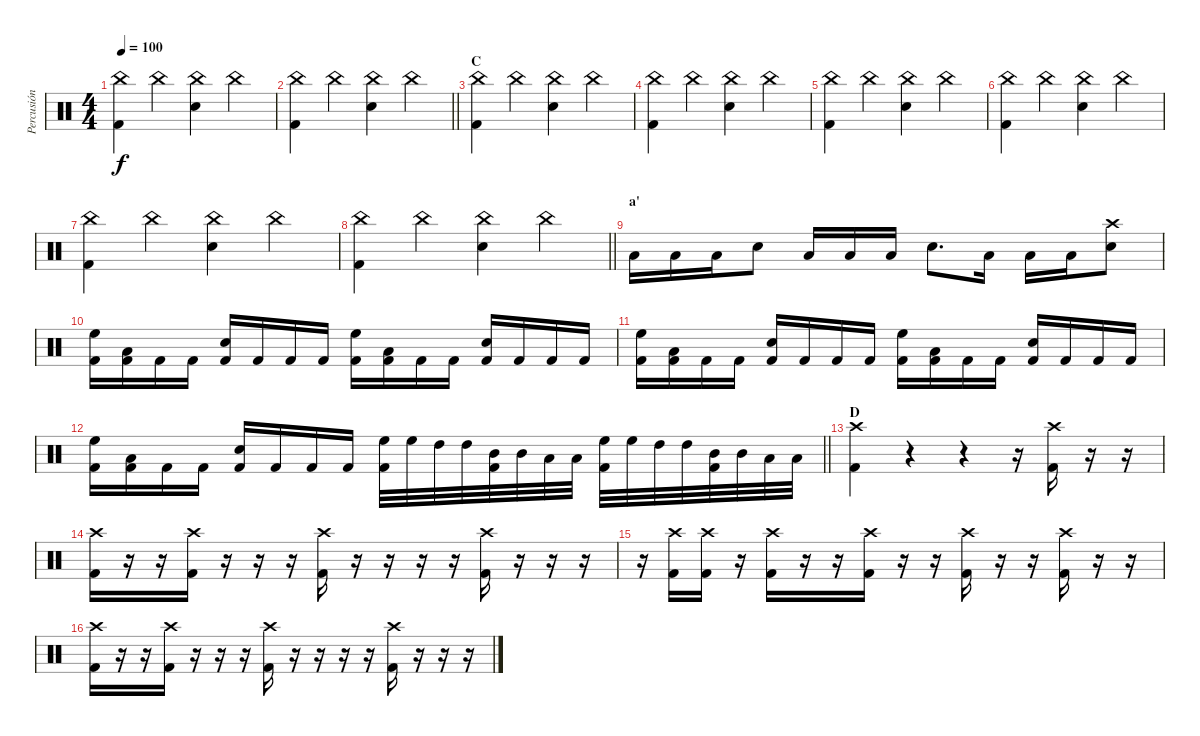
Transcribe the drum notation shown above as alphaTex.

\track ("Percusión" "Percusión") {instrument percussion bank 1}
\staff {score}
\articulation defaults
\ts (4 4)
\tempo 100
\clef neutral
\ks c
("China (hit)" "Kick (hit) 2").4{dy f} "China (hit)".4 ("China (hit)" "Snare (hit) 2").4 "China (hit)".4 |
\barLineRight lightlight
("China (hit)" "Kick (hit) 2").4 "China (hit)".4 ("China (hit)" "Snare (hit) 2").4 "China (hit)".4 |
\section ("" "C")
("China (hit)" "Kick (hit) 2").4 "China (hit)".4 ("China (hit)" "Snare (hit) 2").4 "China (hit)".4 |
("China (hit)" "Kick (hit) 2").4 "China (hit)".4 ("China (hit)" "Snare (hit) 2").4 "China (hit)".4 |
("China (hit)" "Kick (hit) 2").4 "China (hit)".4 ("China (hit)" "Snare (hit) 2").4 "China (hit)".4 |
("China (hit)" "Kick (hit) 2").4 "China (hit)".4 ("China (hit)" "Snare (hit) 2").4 "China (hit)".4 |
("China (hit)" "Kick (hit) 2").4 "China (hit)".4 ("China (hit)" "Snare (hit) 2").4 "China (hit)".4 |
\barLineRight lightlight
("China (hit)" "Kick (hit) 2").4 "China (hit)".4 ("China (hit)" "Snare (hit) 2").4 "China (hit)".4 |
\section ("" "a'")
"Low Tom (hit)".16 "Low Tom (hit)".16 "Low Tom (hit)".16 "Snare (hit) 2".8 "Low Tom (hit)".16 "Low Tom (hit)".16 "Low Tom (hit)".16 "Snare (hit) 2".8{d} "Low Tom (hit)".16 "Low Tom (hit)".16 "Low Tom (hit)".16 ("Crash high (hit)" "Snare (hit) 2").8 |
("High Floor Tom (hit)" "Kick (hit) 2").16 ("Kick (hit) 2" "Low Tom (hit)").16 "Kick (hit) 2".16 "Kick (hit) 2".16 ("Snare (hit) 2" "Kick (hit) 2").16 "Kick (hit) 2".16 "Kick (hit) 2".16 "Kick (hit) 2".16 ("Kick (hit) 2" "High Floor Tom (hit)").16 ("Kick (hit) 2" "Low Tom (hit)").16 "Kick (hit) 2".16 "Kick (hit) 2".16 ("Kick (hit) 2" "Snare (hit) 2").16 "Kick (hit) 2".16 "Kick (hit) 2".16 "Kick (hit) 2".16 |
("High Floor Tom (hit)" "Kick (hit) 2").16 ("Kick (hit) 2" "Low Tom (hit)").16 "Kick (hit) 2".16 "Kick (hit) 2".16 ("Snare (hit) 2" "Kick (hit) 2").16 "Kick (hit) 2".16 "Kick (hit) 2".16 "Kick (hit) 2".16 ("Kick (hit) 2" "High Floor Tom (hit)").16 ("Kick (hit) 2" "Low Tom (hit)").16 "Kick (hit) 2".16 "Kick (hit) 2".16 ("Kick (hit) 2" "Snare (hit) 2").16 "Kick (hit) 2".16 "Kick (hit) 2".16 "Kick (hit) 2".16 |
\barLineRight lightlight
("High Floor Tom (hit)" "Kick (hit) 2").16 ("Kick (hit) 2" "Low Tom (hit)").16 "Kick (hit) 2".16 "Kick (hit) 2".16 ("Snare (hit) 2" "Kick (hit) 2").16 "Kick (hit) 2".16 "Kick (hit) 2".16 "Kick (hit) 2".16 ("High Floor Tom (hit)" "Kick (hit) 2").32 "High Floor Tom (hit)".32 "High Tom (hit)".32 "High Tom (hit)".32 ("Mid Tom (hit)" "Kick (hit) 2").32 "Mid Tom (hit)".32 "Low Tom (hit)".32 "Low Tom (hit)".32 ("High Floor Tom (hit)" "Kick (hit) 2").32 "High Floor Tom (hit)".32 "High Tom (hit)".32 "High Tom (hit)".32 ("Mid Tom (hit)" "Kick (hit) 2").32 "Mid Tom (hit)".32 "Low Tom (hit)".32 "Low Tom (hit)".32 |
\section ("" "D")
("Kick (hit) 2" "Crash high (hit)").4 r.4 r.4 r.16 ("Kick (hit) 2" "Crash high (hit)").16 r.16 r.16 |
("Kick (hit) 2" "Crash high (hit)").16 r.16 r.16 ("Crash high (hit)" "Kick (hit) 2").16 r.16 r.16 r.16 ("Crash high (hit)" "Kick (hit) 2").16 r.16 r.16 r.16 r.16 ("Crash high (hit)" "Kick (hit) 2").16 r.16 r.16 r.16 |
r.16 ("Crash high (hit)" "Kick (hit) 2").16 ("Crash high (hit)" "Kick (hit) 2").16 r.16 ("Crash high (hit)" "Kick (hit) 2").16 r.16 r.16 ("Crash high (hit)" "Kick (hit) 2").16 r.16 r.16 ("Crash high (hit)" "Kick (hit) 2").16 r.16 r.16 ("Crash high (hit)" "Kick (hit) 2").16 r.16 r.16 |
("Kick (hit) 2" "Crash high (hit)").16 r.16 r.16 ("Crash high (hit)" "Kick (hit) 2").16 r.16 r.16 r.16 ("Crash high (hit)" "Kick (hit) 2").16 r.16 r.16 r.16 r.16 ("Crash high (hit)" "Kick (hit) 2").16 r.16 r.16 r.16
